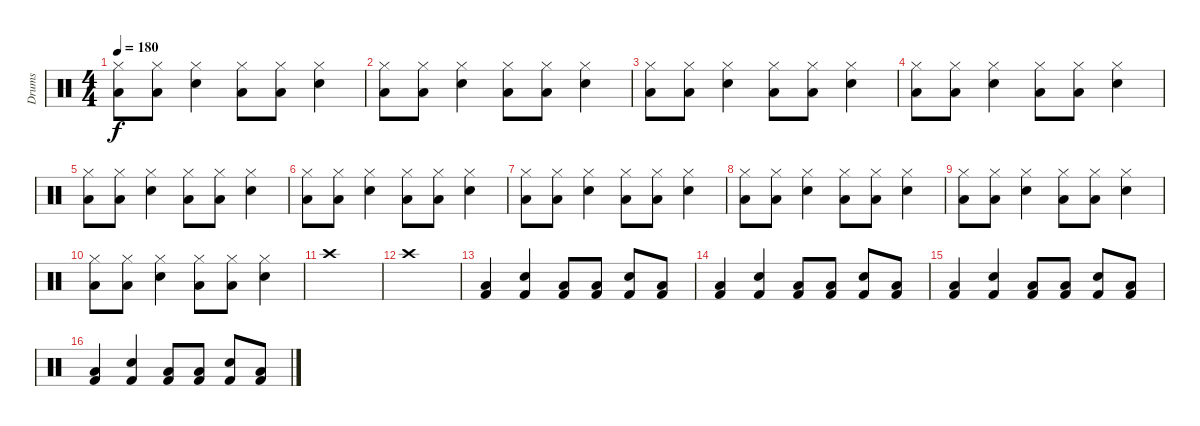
\track ("Drums" "Drums") {instrument percussion}
\staff {score}
\articulation defaults
\ts (4 4)
\tempo 180
\clef neutral
\ks c
("Hi-Hat (closed)" "Low Tom (hit)").8{dy f} ("Hi-Hat (closed)" "Low Tom (hit)").8 ("Hi-Hat (closed)" "Electric Snare (hit)").4 ("Hi-Hat (closed)" "Low Tom (hit)").8 ("Hi-Hat (closed)" "Low Tom (hit)").8 ("Hi-Hat (closed)" "Electric Snare (hit)").4 |
("Hi-Hat (closed)" "Low Tom (hit)").8 ("Hi-Hat (closed)" "Low Tom (hit)").8 ("Hi-Hat (closed)" "Electric Snare (hit)").4 ("Hi-Hat (closed)" "Low Tom (hit)").8 ("Hi-Hat (closed)" "Low Tom (hit)").8 ("Hi-Hat (closed)" "Electric Snare (hit)").4 |
("Hi-Hat (closed)" "Low Tom (hit)").8 ("Hi-Hat (closed)" "Low Tom (hit)").8 ("Hi-Hat (closed)" "Electric Snare (hit)").4 ("Hi-Hat (closed)" "Low Tom (hit)").8 ("Hi-Hat (closed)" "Low Tom (hit)").8 ("Hi-Hat (closed)" "Electric Snare (hit)").4 |
("Hi-Hat (closed)" "Low Tom (hit)").8 ("Hi-Hat (closed)" "Low Tom (hit)").8 ("Hi-Hat (closed)" "Electric Snare (hit)").4 ("Hi-Hat (closed)" "Low Tom (hit)").8 ("Hi-Hat (closed)" "Low Tom (hit)").8 ("Hi-Hat (closed)" "Electric Snare (hit)").4 |
("Hi-Hat (closed)" "Low Tom (hit)").8 ("Hi-Hat (closed)" "Low Tom (hit)").8 ("Hi-Hat (closed)" "Electric Snare (hit)").4 ("Hi-Hat (closed)" "Low Tom (hit)").8 ("Hi-Hat (closed)" "Low Tom (hit)").8 ("Hi-Hat (closed)" "Electric Snare (hit)").4 |
("Hi-Hat (closed)" "Low Tom (hit)").8 ("Hi-Hat (closed)" "Low Tom (hit)").8 ("Hi-Hat (closed)" "Electric Snare (hit)").4 ("Hi-Hat (closed)" "Low Tom (hit)").8 ("Hi-Hat (closed)" "Low Tom (hit)").8 ("Hi-Hat (closed)" "Electric Snare (hit)").4 |
("Hi-Hat (closed)" "Low Tom (hit)").8 ("Hi-Hat (closed)" "Low Tom (hit)").8 ("Hi-Hat (closed)" "Electric Snare (hit)").4 ("Hi-Hat (closed)" "Low Tom (hit)").8 ("Hi-Hat (closed)" "Low Tom (hit)").8 ("Hi-Hat (closed)" "Electric Snare (hit)").4 |
("Hi-Hat (closed)" "Low Tom (hit)").8 ("Hi-Hat (closed)" "Low Tom (hit)").8 ("Hi-Hat (closed)" "Electric Snare (hit)").4 ("Hi-Hat (closed)" "Low Tom (hit)").8 ("Hi-Hat (closed)" "Low Tom (hit)").8 ("Hi-Hat (closed)" "Electric Snare (hit)").4 |
("Hi-Hat (closed)" "Low Tom (hit)").8 ("Hi-Hat (closed)" "Low Tom (hit)").8 ("Hi-Hat (closed)" "Electric Snare (hit)").4 ("Hi-Hat (closed)" "Low Tom (hit)").8 ("Hi-Hat (closed)" "Low Tom (hit)").8 ("Hi-Hat (closed)" "Electric Snare (hit)").4 |
("Hi-Hat (closed)" "Low Tom (hit)").8 ("Hi-Hat (closed)" "Low Tom (hit)").8 ("Hi-Hat (closed)" "Electric Snare (hit)").4 ("Hi-Hat (closed)" "Low Tom (hit)").8 ("Hi-Hat (closed)" "Low Tom (hit)").8 ("Hi-Hat (closed)" "Electric Snare (hit)").4 |
"Crash high (hit)".1 |
"Crash high (hit)".1 |
("Kick (hit) 2" "Low Tom (hit)").4 ("Kick (hit) 2" "Electric Snare (hit)").4 ("Kick (hit) 2" "Low Tom (hit)").8 ("Kick (hit) 2" "Low Tom (hit)").8 ("Kick (hit) 2" "Electric Snare (hit)").8 ("Kick (hit) 2" "Low Tom (hit)").8 |
("Kick (hit) 2" "Low Tom (hit)").4 ("Kick (hit) 2" "Electric Snare (hit)").4 ("Kick (hit) 2" "Low Tom (hit)").8 ("Kick (hit) 2" "Low Tom (hit)").8 ("Kick (hit) 2" "Electric Snare (hit)").8 ("Kick (hit) 2" "Low Tom (hit)").8 |
("Kick (hit) 2" "Low Tom (hit)").4 ("Kick (hit) 2" "Electric Snare (hit)").4 ("Kick (hit) 2" "Low Tom (hit)").8 ("Kick (hit) 2" "Low Tom (hit)").8 ("Kick (hit) 2" "Electric Snare (hit)").8 ("Kick (hit) 2" "Low Tom (hit)").8 |
("Kick (hit) 2" "Low Tom (hit)").4 ("Kick (hit) 2" "Electric Snare (hit)").4 ("Kick (hit) 2" "Low Tom (hit)").8 ("Kick (hit) 2" "Low Tom (hit)").8 ("Kick (hit) 2" "Electric Snare (hit)").8 ("Kick (hit) 2" "Low Tom (hit)").8
